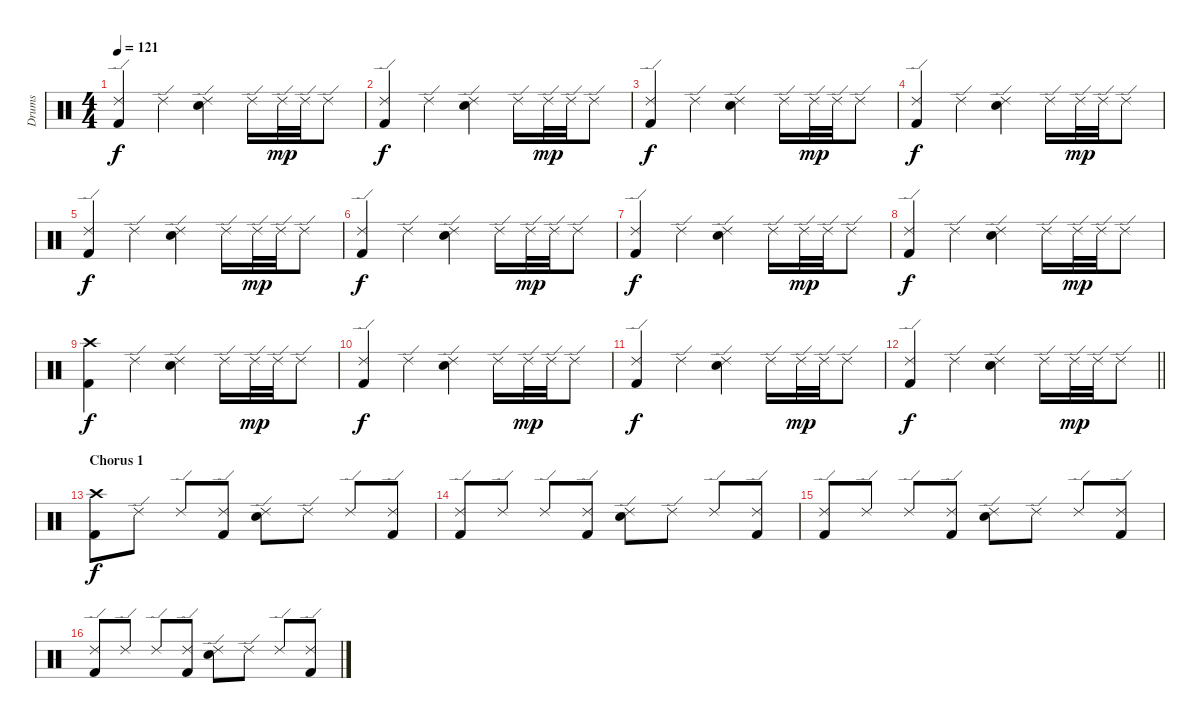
\track ("Drums" "Drums") {instrument percussion}
\staff {score}
\articulation defaults
\ts (4 4)
\tempo 121
\clef neutral
\ks c
("Ride (edge) 2" "Kick (hit) 2").4{dy f} "Ride (edge) 2".4 ("Ride (edge) 2" "Electric Snare (hit)").4 "Ride (edge) 2".16 "Ride (edge) 2".32{dy mp} "Ride (edge) 2".32 "Ride (edge) 2".8 |
("Ride (edge) 2" "Kick (hit) 2").4{dy f} "Ride (edge) 2".4 ("Ride (edge) 2" "Electric Snare (hit)").4 "Ride (edge) 2".16 "Ride (edge) 2".32{dy mp} "Ride (edge) 2".32 "Ride (edge) 2".8 |
("Ride (edge) 2" "Kick (hit) 2").4{dy f} "Ride (edge) 2".4 ("Ride (edge) 2" "Electric Snare (hit)").4 "Ride (edge) 2".16 "Ride (edge) 2".32{dy mp} "Ride (edge) 2".32 "Ride (edge) 2".8 |
("Ride (edge) 2" "Kick (hit) 2").4{dy f} "Ride (edge) 2".4 ("Ride (edge) 2" "Electric Snare (hit)").4 "Ride (edge) 2".16 "Ride (edge) 2".32{dy mp} "Ride (edge) 2".32 "Ride (edge) 2".8 |
("Ride (edge) 2" "Kick (hit) 2").4{dy f} "Ride (edge) 2".4 ("Ride (edge) 2" "Electric Snare (hit)").4 "Ride (edge) 2".16 "Ride (edge) 2".32{dy mp} "Ride (edge) 2".32 "Ride (edge) 2".8 |
("Ride (edge) 2" "Kick (hit) 2").4{dy f} "Ride (edge) 2".4 ("Ride (edge) 2" "Electric Snare (hit)").4 "Ride (edge) 2".16 "Ride (edge) 2".32{dy mp} "Ride (edge) 2".32 "Ride (edge) 2".8 |
("Ride (edge) 2" "Kick (hit) 2").4{dy f} "Ride (edge) 2".4 ("Ride (edge) 2" "Electric Snare (hit)").4 "Ride (edge) 2".16 "Ride (edge) 2".32{dy mp} "Ride (edge) 2".32 "Ride (edge) 2".8 |
("Ride (edge) 2" "Kick (hit) 2").4{dy f} "Ride (edge) 2".4 ("Ride (edge) 2" "Electric Snare (hit)").4 "Ride (edge) 2".16 "Ride (edge) 2".32{dy mp} "Ride (edge) 2".32 "Ride (edge) 2".8 |
("Crash high (hit)" "Kick (hit) 2").4{dy f} "Ride (edge) 2".4 ("Ride (edge) 2" "Electric Snare (hit)").4 "Ride (edge) 2".16 "Ride (edge) 2".32{dy mp} "Ride (edge) 2".32 "Ride (edge) 2".8 |
("Ride (edge) 2" "Kick (hit) 2").4{dy f} "Ride (edge) 2".4 ("Ride (edge) 2" "Electric Snare (hit)").4 "Ride (edge) 2".16 "Ride (edge) 2".32{dy mp} "Ride (edge) 2".32 "Ride (edge) 2".8 |
("Ride (edge) 2" "Kick (hit) 2").4{dy f} "Ride (edge) 2".4 ("Ride (edge) 2" "Electric Snare (hit)").4 "Ride (edge) 2".16 "Ride (edge) 2".32{dy mp} "Ride (edge) 2".32 "Ride (edge) 2".8 |
\barLineRight lightlight
("Ride (edge) 2" "Kick (hit) 2").4{dy f} "Ride (edge) 2".4 ("Ride (edge) 2" "Electric Snare (hit)").4 "Ride (edge) 2".16 "Ride (edge) 2".32{dy mp} "Ride (edge) 2".32 "Ride (edge) 2".8 |
\section ("" "Chorus 1")
("Crash high (hit)" "Kick (hit) 2").8{dy f} "Ride (edge) 2".8 "Ride (edge) 2".8 ("Ride (edge) 2" "Kick (hit) 2").8 ("Ride (edge) 2" "Electric Snare (hit)").8 "Ride (edge) 2".8 "Ride (edge) 2".8 ("Ride (edge) 2" "Kick (hit) 2").8 |
("Ride (edge) 2" "Kick (hit) 2").8 "Ride (edge) 2".8 "Ride (edge) 2".8 ("Ride (edge) 2" "Kick (hit) 2").8 ("Ride (edge) 2" "Electric Snare (hit)").8 "Ride (edge) 2".8 "Ride (edge) 2".8 ("Ride (edge) 2" "Kick (hit) 2").8 |
("Ride (edge) 2" "Kick (hit) 2").8 "Ride (edge) 2".8 "Ride (edge) 2".8 ("Ride (edge) 2" "Kick (hit) 2").8 ("Ride (edge) 2" "Electric Snare (hit)").8 "Ride (edge) 2".8 "Ride (edge) 2".8 ("Ride (edge) 2" "Kick (hit) 2").8 |
("Ride (edge) 2" "Kick (hit) 2").8 "Ride (edge) 2".8 "Ride (edge) 2".8 ("Ride (edge) 2" "Kick (hit) 2").8 ("Ride (edge) 2" "Electric Snare (hit)").8 "Ride (edge) 2".8 "Ride (edge) 2".8 ("Ride (edge) 2" "Kick (hit) 2").8
